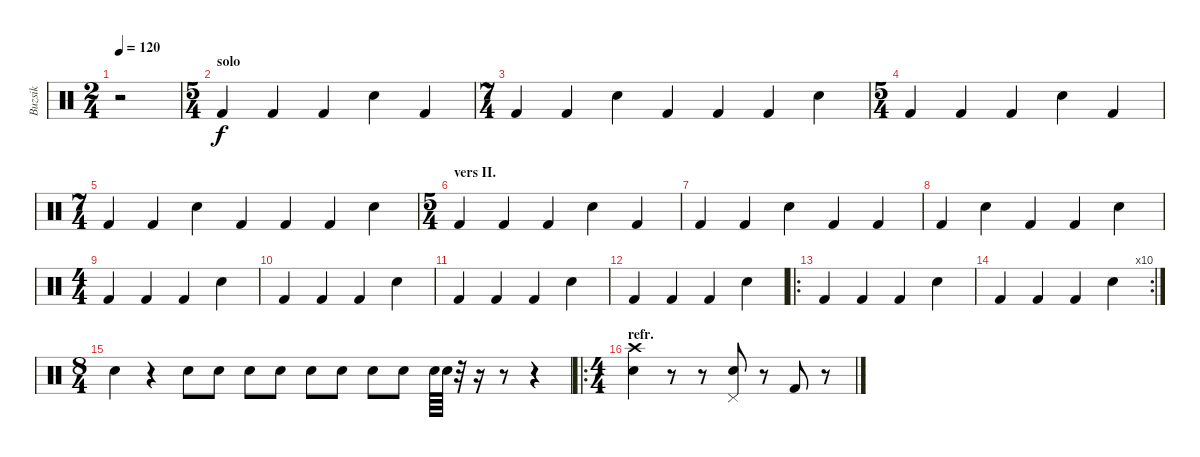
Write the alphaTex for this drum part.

\track ("Buzsik" "Buzsik") {instrument percussion}
\staff {score}
\articulation defaults
\ts (2 4)
\tempo 120
\clef neutral
\ks c
r.2{dy f} |
\ts (5 4)
\section ("" "solo")
"Kick (hit) 2".4 "Kick (hit) 2".4 "Kick (hit) 2".4 "Snare (hit) 2".4 "Kick (hit) 2".4 |
\ts (7 4)
"Kick (hit) 2".4 "Kick (hit) 2".4 "Snare (hit) 2".4 "Kick (hit) 2".4 "Kick (hit) 2".4 "Kick (hit) 2".4 "Snare (hit) 2".4 |
\ts (5 4)
"Kick (hit) 2".4 "Kick (hit) 2".4 "Kick (hit) 2".4 "Snare (hit) 2".4 "Kick (hit) 2".4 |
\ts (7 4)
"Kick (hit) 2".4 "Kick (hit) 2".4 "Snare (hit) 2".4 "Kick (hit) 2".4 "Kick (hit) 2".4 "Kick (hit) 2".4 "Snare (hit) 2".4 |
\ts (5 4)
\section ("" "vers II.")
"Kick (hit) 2".4 "Kick (hit) 2".4 "Kick (hit) 2".4 "Snare (hit) 2".4 "Kick (hit) 2".4 |
"Kick (hit) 2".4 "Kick (hit) 2".4 "Snare (hit) 2".4 "Kick (hit) 2".4 "Kick (hit) 2".4 |
"Kick (hit) 2".4 "Snare (hit) 2".4 "Kick (hit) 2".4 "Kick (hit) 2".4 "Snare (hit) 2".4 |
\ts (4 4)
"Kick (hit) 2".4 "Kick (hit) 2".4 "Kick (hit) 2".4 "Snare (hit) 2".4 |
"Kick (hit) 2".4 "Kick (hit) 2".4 "Kick (hit) 2".4 "Snare (hit) 2".4 |
"Kick (hit) 2".4 "Kick (hit) 2".4 "Kick (hit) 2".4 "Snare (hit) 2".4 |
"Kick (hit) 2".4 "Kick (hit) 2".4 "Kick (hit) 2".4 "Snare (hit) 2".4 |
\ro "Kick (hit) 2".4 "Kick (hit) 2".4 "Kick (hit) 2".4 "Snare (hit) 2".4
|
\rc 10 "Kick (hit) 2".4 "Kick (hit) 2".4 "Kick (hit) 2".4 "Snare (hit) 2".4
|
\ts (8 4)
"Snare (hit) 2".4 r.4 "Snare (hit) 2".8 "Snare (hit) 2".8 "Snare (hit) 2".8 "Snare (hit) 2".8 "Snare (hit) 2".8 "Snare (hit) 2".8 "Snare (hit) 2".8 "Snare (hit) 2".8 "Snare (hit) 2".64 "Snare (hit) 2".64 r.32 r.16 r.8 r.4 |
\ro
\ts (4 4)
\section ("" "refr.")
("Snare (hit) 2" "Crash high (hit)").4 r.8 r.8 ("Snare (hit) 2" "Pedal Hi-Hat (hit)").8 r.8 "Kick (hit) 2".8 r.8
